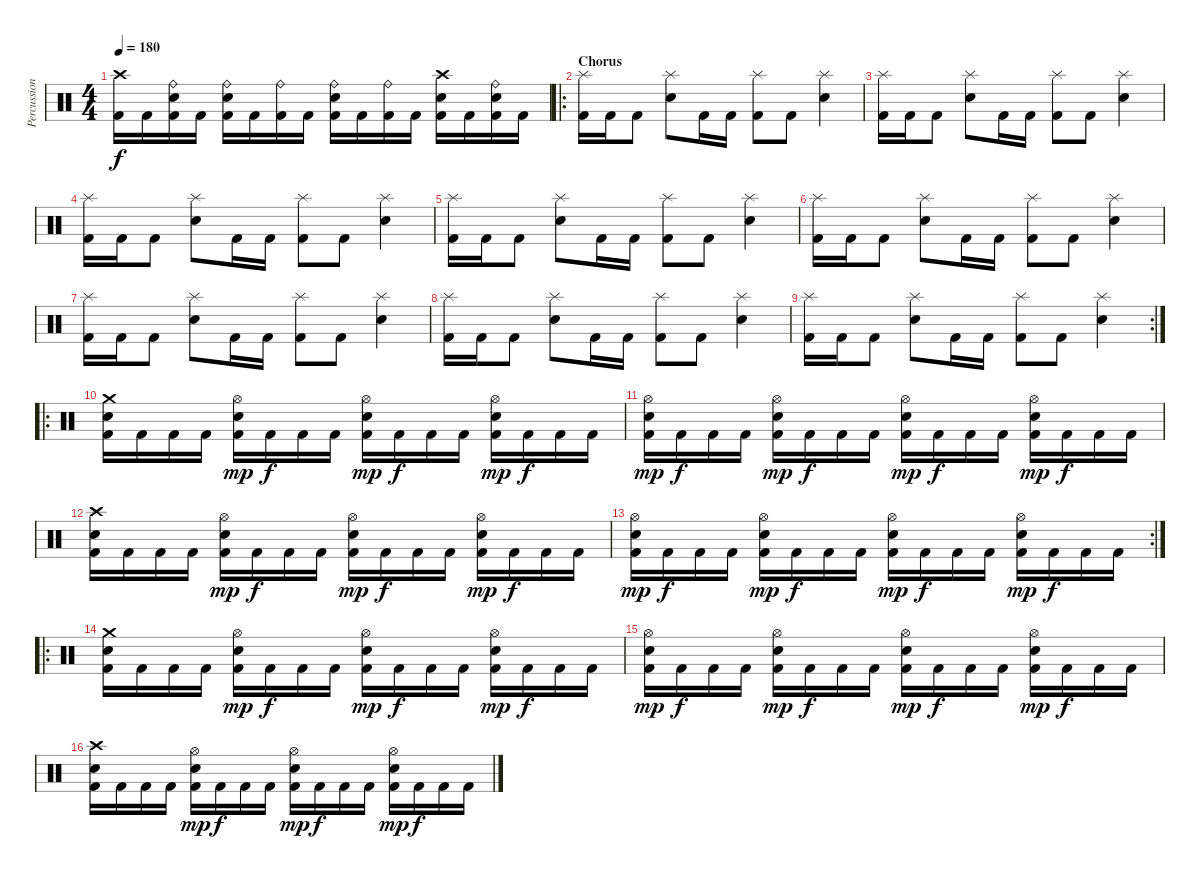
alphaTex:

\track ("Percussion" "Percussion") {instrument percussion}
\staff {score}
\articulation defaults
\ts (4 4)
\tempo 180
\clef neutral
\ks c
("Crash high (hit)" "Kick (hit) 2").16{dy f} "Kick (hit) 2".16 ("Ride (bell)" "Electric Snare (hit)" "Kick (hit) 2").16 "Kick (hit) 2".16 ("Ride (bell)" "Electric Snare (hit)" "Kick (hit) 2").16 "Kick (hit) 2".16 ("Ride (bell)" "Kick (hit) 2").16 "Kick (hit) 2".16 ("Ride (bell)" "Electric Snare (hit)" "Kick (hit) 2").16 "Kick (hit) 2".16 ("Ride (bell)" "Kick (hit) 2").16 "Kick (hit) 2".16 ("Crash high (hit)" "Electric Snare (hit)" "Kick (hit) 2").16 "Kick (hit) 2".16 ("Ride (bell)" "Electric Snare (hit)" "Kick (hit) 2").16 "Kick (hit) 2".16 |
\ro
\section ("" "Chorus")
("Splash (hit)" "Kick (hit) 2").16 "Kick (hit) 2".16 "Kick (hit) 2".8 ("Splash (hit)" "Electric Snare (hit)").8 "Kick (hit) 2".16 "Kick (hit) 2".16 ("Splash (hit)" "Kick (hit) 2").8 "Kick (hit) 2".8 ("Splash (hit)" "Electric Snare (hit)").4 |
("Splash (hit)" "Kick (hit) 2").16 "Kick (hit) 2".16 "Kick (hit) 2".8 ("Splash (hit)" "Electric Snare (hit)").8 "Kick (hit) 2".16 "Kick (hit) 2".16 ("Splash (hit)" "Kick (hit) 2").8 "Kick (hit) 2".8 ("Splash (hit)" "Electric Snare (hit)").4 |
("Splash (hit)" "Kick (hit) 2").16 "Kick (hit) 2".16 "Kick (hit) 2".8 ("Splash (hit)" "Electric Snare (hit)").8 "Kick (hit) 2".16 "Kick (hit) 2".16 ("Splash (hit)" "Kick (hit) 2").8 "Kick (hit) 2".8 ("Splash (hit)" "Electric Snare (hit)").4 |
("Splash (hit)" "Kick (hit) 2").16 "Kick (hit) 2".16 "Kick (hit) 2".8 ("Splash (hit)" "Electric Snare (hit)").8 "Kick (hit) 2".16 "Kick (hit) 2".16 ("Splash (hit)" "Kick (hit) 2").8 "Kick (hit) 2".8 ("Splash (hit)" "Electric Snare (hit)").4 |
("Splash (hit)" "Kick (hit) 2").16 "Kick (hit) 2".16 "Kick (hit) 2".8 ("Splash (hit)" "Electric Snare (hit)").8 "Kick (hit) 2".16 "Kick (hit) 2".16 ("Splash (hit)" "Kick (hit) 2").8 "Kick (hit) 2".8 ("Splash (hit)" "Electric Snare (hit)").4 |
("Splash (hit)" "Kick (hit) 2").16 "Kick (hit) 2".16 "Kick (hit) 2".8 ("Splash (hit)" "Electric Snare (hit)").8 "Kick (hit) 2".16 "Kick (hit) 2".16 ("Splash (hit)" "Kick (hit) 2").8 "Kick (hit) 2".8 ("Splash (hit)" "Electric Snare (hit)").4 |
("Splash (hit)" "Kick (hit) 2").16 "Kick (hit) 2".16 "Kick (hit) 2".8 ("Splash (hit)" "Electric Snare (hit)").8 "Kick (hit) 2".16 "Kick (hit) 2".16 ("Splash (hit)" "Kick (hit) 2").8 "Kick (hit) 2".8 ("Splash (hit)" "Electric Snare (hit)").4 |
\rc 2
("Splash (hit)" "Kick (hit) 2").16 "Kick (hit) 2".16 "Kick (hit) 2".8 ("Splash (hit)" "Electric Snare (hit)").8 "Kick (hit) 2".16 "Kick (hit) 2".16 ("Splash (hit)" "Kick (hit) 2").8 "Kick (hit) 2".8 ("Splash (hit)" "Electric Snare (hit)").4 |
\ro
("Crash medium (hit)" "Electric Snare (hit)" "Kick (hit) 2").16 "Kick (hit) 2".16 "Kick (hit) 2".16 "Kick (hit) 2".16 ("Hi-Hat (open)" "Electric Snare (hit)" "Kick (hit) 2").16{dy mp} "Kick (hit) 2".16{dy f} "Kick (hit) 2".16 "Kick (hit) 2".16 ("Hi-Hat (open)" "Electric Snare (hit)" "Kick (hit) 2").16{dy mp} "Kick (hit) 2".16{dy f} "Kick (hit) 2".16 "Kick (hit) 2".16 ("Hi-Hat (open)" "Electric Snare (hit)" "Kick (hit) 2").16{dy mp} "Kick (hit) 2".16{dy f} "Kick (hit) 2".16 "Kick (hit) 2".16 |
("Hi-Hat (open)" "Electric Snare (hit)" "Kick (hit) 2").16{dy mp} "Kick (hit) 2".16{dy f} "Kick (hit) 2".16 "Kick (hit) 2".16 ("Hi-Hat (open)" "Electric Snare (hit)" "Kick (hit) 2").16{dy mp} "Kick (hit) 2".16{dy f} "Kick (hit) 2".16 "Kick (hit) 2".16 ("Hi-Hat (open)" "Electric Snare (hit)" "Kick (hit) 2").16{dy mp} "Kick (hit) 2".16{dy f} "Kick (hit) 2".16 "Kick (hit) 2".16 ("Hi-Hat (open)" "Electric Snare (hit)" "Kick (hit) 2").16{dy mp} "Kick (hit) 2".16{dy f} "Kick (hit) 2".16 "Kick (hit) 2".16 |
("Crash high (hit)" "Electric Snare (hit)" "Kick (hit) 2").16 "Kick (hit) 2".16 "Kick (hit) 2".16 "Kick (hit) 2".16 ("Hi-Hat (open)" "Electric Snare (hit)" "Kick (hit) 2").16{dy mp} "Kick (hit) 2".16{dy f} "Kick (hit) 2".16 "Kick (hit) 2".16 ("Hi-Hat (open)" "Electric Snare (hit)" "Kick (hit) 2").16{dy mp} "Kick (hit) 2".16{dy f} "Kick (hit) 2".16 "Kick (hit) 2".16 ("Hi-Hat (open)" "Electric Snare (hit)" "Kick (hit) 2").16{dy mp} "Kick (hit) 2".16{dy f} "Kick (hit) 2".16 "Kick (hit) 2".16 |
\rc 2
("Hi-Hat (open)" "Electric Snare (hit)" "Kick (hit) 2").16{dy mp} "Kick (hit) 2".16{dy f} "Kick (hit) 2".16 "Kick (hit) 2".16 ("Hi-Hat (open)" "Electric Snare (hit)" "Kick (hit) 2").16{dy mp} "Kick (hit) 2".16{dy f} "Kick (hit) 2".16 "Kick (hit) 2".16 ("Hi-Hat (open)" "Electric Snare (hit)" "Kick (hit) 2").16{dy mp} "Kick (hit) 2".16{dy f} "Kick (hit) 2".16 "Kick (hit) 2".16 ("Hi-Hat (open)" "Electric Snare (hit)" "Kick (hit) 2").16{dy mp} "Kick (hit) 2".16{dy f} "Kick (hit) 2".16 "Kick (hit) 2".16 |
\ro
("Crash medium (hit)" "Electric Snare (hit)" "Kick (hit) 2").16 "Kick (hit) 2".16 "Kick (hit) 2".16 "Kick (hit) 2".16 ("Hi-Hat (open)" "Electric Snare (hit)" "Kick (hit) 2").16{dy mp} "Kick (hit) 2".16{dy f} "Kick (hit) 2".16 "Kick (hit) 2".16 ("Hi-Hat (open)" "Electric Snare (hit)" "Kick (hit) 2").16{dy mp} "Kick (hit) 2".16{dy f} "Kick (hit) 2".16 "Kick (hit) 2".16 ("Hi-Hat (open)" "Electric Snare (hit)" "Kick (hit) 2").16{dy mp} "Kick (hit) 2".16{dy f} "Kick (hit) 2".16 "Kick (hit) 2".16 |
("Hi-Hat (open)" "Electric Snare (hit)" "Kick (hit) 2").16{dy mp} "Kick (hit) 2".16{dy f} "Kick (hit) 2".16 "Kick (hit) 2".16 ("Hi-Hat (open)" "Electric Snare (hit)" "Kick (hit) 2").16{dy mp} "Kick (hit) 2".16{dy f} "Kick (hit) 2".16 "Kick (hit) 2".16 ("Hi-Hat (open)" "Electric Snare (hit)" "Kick (hit) 2").16{dy mp} "Kick (hit) 2".16{dy f} "Kick (hit) 2".16 "Kick (hit) 2".16 ("Hi-Hat (open)" "Electric Snare (hit)" "Kick (hit) 2").16{dy mp} "Kick (hit) 2".16{dy f} "Kick (hit) 2".16 "Kick (hit) 2".16 |
("Crash high (hit)" "Electric Snare (hit)" "Kick (hit) 2").16 "Kick (hit) 2".16 "Kick (hit) 2".16 "Kick (hit) 2".16 ("Hi-Hat (open)" "Electric Snare (hit)" "Kick (hit) 2").16{dy mp} "Kick (hit) 2".16{dy f} "Kick (hit) 2".16 "Kick (hit) 2".16 ("Hi-Hat (open)" "Electric Snare (hit)" "Kick (hit) 2").16{dy mp} "Kick (hit) 2".16{dy f} "Kick (hit) 2".16 "Kick (hit) 2".16 ("Hi-Hat (open)" "Electric Snare (hit)" "Kick (hit) 2").16{dy mp} "Kick (hit) 2".16{dy f} "Kick (hit) 2".16 "Kick (hit) 2".16
